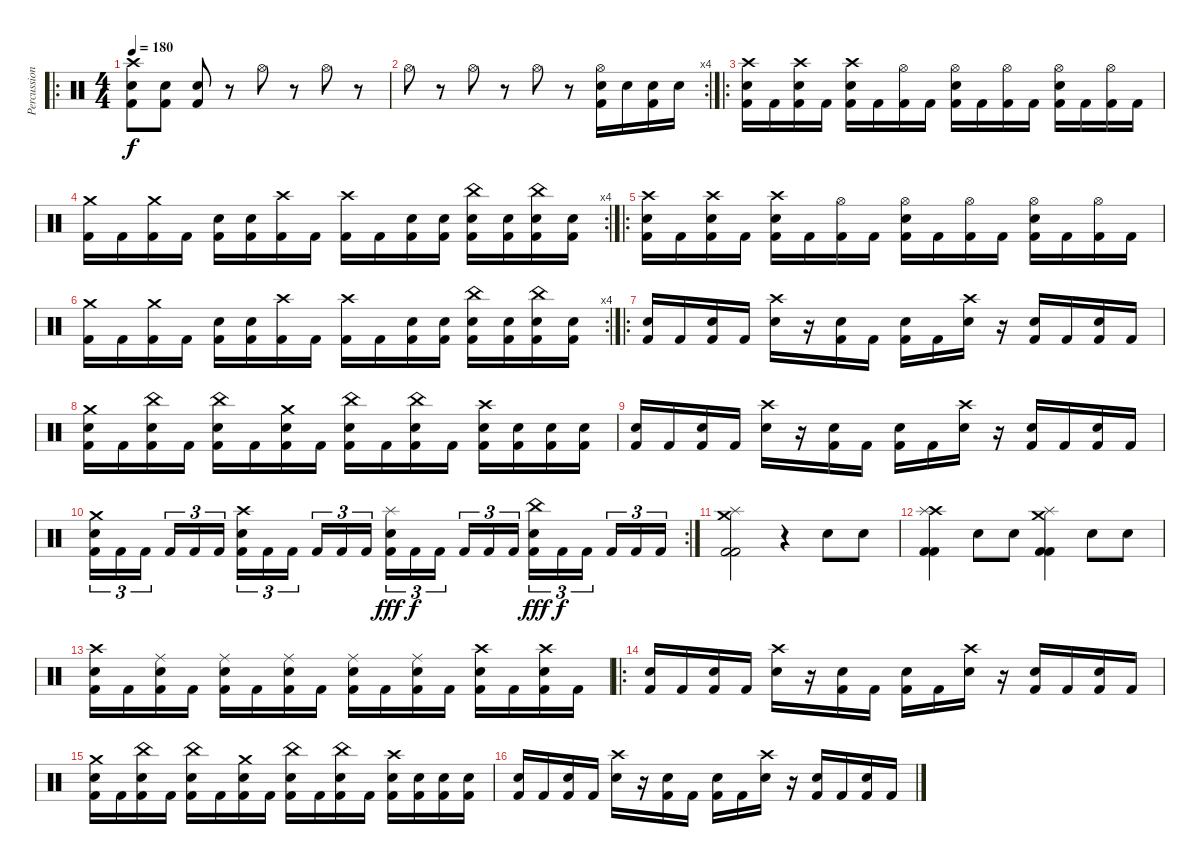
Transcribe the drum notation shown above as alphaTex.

\track ("Percussion" "Percussion") {instrument percussion}
\staff {score}
\articulation defaults
\ro
\ts (4 4)
\tempo 180
\clef neutral
\ks c
("Crash high (hit)" "Electric Snare (hit)" "Kick (hit) 2").8{dy f} ("Electric Snare (hit)" "Kick (hit) 2").8 ("Electric Snare (hit)" "Kick (hit) 2").8 r.8 "Hi-Hat (open)".8 r.8 "Hi-Hat (open)".8 r.8 |
\rc 4 "Hi-Hat (open)".8
r.8 "Hi-Hat (open)".8 r.8 "Hi-Hat (open)".8 r.8 ("Hi-Hat (open)" "Electric Snare (hit)" "Kick (hit) 2").16 "Electric Snare (hit)".16 ("Electric Snare (hit)" "Kick (hit) 2").16 "Electric Snare (hit)".16 |
\ro
("Crash high (hit)" "Electric Snare (hit)" "Kick (hit) 2").16 "Kick (hit) 2".16 ("Crash high (hit)" "Electric Snare (hit)" "Kick (hit) 2").16 "Kick (hit) 2".16 ("Crash high (hit)" "Electric Snare (hit)" "Kick (hit) 2").16 "Kick (hit) 2".16 ("Hi-Hat (open)" "Kick (hit) 2").16 "Kick (hit) 2".16 ("Hi-Hat (open)" "Electric Snare (hit)" "Kick (hit) 2").16 "Kick (hit) 2".16 ("Hi-Hat (open)" "Kick (hit) 2").16 "Kick (hit) 2".16 ("Hi-Hat (open)" "Electric Snare (hit)" "Kick (hit) 2").16 "Kick (hit) 2".16 ("Hi-Hat (open)" "Kick (hit) 2").16 "Kick (hit) 2".16 |
\rc 4
("Crash medium (hit)" "Kick (hit) 2").16 "Kick (hit) 2".16 ("Crash medium (hit)" "Kick (hit) 2").16 "Kick (hit) 2".16 ("Electric Snare (hit)" "Kick (hit) 2").16 ("Electric Snare (hit)" "Kick (hit) 2").16 ("Crash high (hit)" "Kick (hit) 2").16 "Kick (hit) 2".16 ("Crash high (hit)" "Kick (hit) 2").16 "Kick (hit) 2".16 ("Electric Snare (hit)" "Kick (hit) 2").16 ("Electric Snare (hit)" "Kick (hit) 2").16 ("China (hit)" "Electric Snare (hit)" "Kick (hit) 2").16 ("Electric Snare (hit)" "Kick (hit) 2").16 ("China (hit)" "Electric Snare (hit)" "Kick (hit) 2").16 ("Electric Snare (hit)" "Kick (hit) 2").16 |
\ro
("Crash high (hit)" "Electric Snare (hit)" "Kick (hit) 2").16 "Kick (hit) 2".16 ("Crash high (hit)" "Electric Snare (hit)" "Kick (hit) 2").16 "Kick (hit) 2".16 ("Crash high (hit)" "Electric Snare (hit)" "Kick (hit) 2").16 "Kick (hit) 2".16 ("Hi-Hat (open)" "Kick (hit) 2").16 "Kick (hit) 2".16 ("Hi-Hat (open)" "Electric Snare (hit)" "Kick (hit) 2").16 "Kick (hit) 2".16 ("Hi-Hat (open)" "Kick (hit) 2").16 "Kick (hit) 2".16 ("Hi-Hat (open)" "Electric Snare (hit)" "Kick (hit) 2").16 "Kick (hit) 2".16 ("Hi-Hat (open)" "Kick (hit) 2").16 "Kick (hit) 2".16 |
\rc 4
("Crash medium (hit)" "Kick (hit) 2").16 "Kick (hit) 2".16 ("Crash medium (hit)" "Kick (hit) 2").16 "Kick (hit) 2".16 ("Electric Snare (hit)" "Kick (hit) 2").16 ("Electric Snare (hit)" "Kick (hit) 2").16 ("Crash high (hit)" "Kick (hit) 2").16 "Kick (hit) 2".16 ("Crash high (hit)" "Kick (hit) 2").16 "Kick (hit) 2".16 ("Electric Snare (hit)" "Kick (hit) 2").16 ("Electric Snare (hit)" "Kick (hit) 2").16 ("China (hit)" "Electric Snare (hit)" "Kick (hit) 2").16 ("Electric Snare (hit)" "Kick (hit) 2").16 ("China (hit)" "Electric Snare (hit)" "Kick (hit) 2").16 ("Electric Snare (hit)" "Kick (hit) 2").16 |
\ro
("Electric Snare (hit)" "Kick (hit) 2").16 "Kick (hit) 2".16 ("Electric Snare (hit)" "Kick (hit) 2").16 "Kick (hit) 2".16 ("Crash high (hit)" "Electric Snare (hit)").16 r.16 ("Electric Snare (hit)" "Kick (hit) 2").16 "Kick (hit) 2".16 ("Electric Snare (hit)" "Kick (hit) 2").16 "Kick (hit) 2".16 ("Crash high (hit)" "Electric Snare (hit)").16 r.16 ("Electric Snare (hit)" "Kick (hit) 2").16 "Kick (hit) 2".16 ("Electric Snare (hit)" "Kick (hit) 2").16 "Kick (hit) 2".16 |
("Crash medium (hit)" "Electric Snare (hit)" "Kick (hit) 2").16 "Kick (hit) 2".16 ("China (hit)" "Electric Snare (hit)" "Kick (hit) 2").16 "Kick (hit) 2".16 ("China (hit)" "Electric Snare (hit)" "Kick (hit) 2").16 "Kick (hit) 2".16 ("Crash medium (hit)" "Electric Snare (hit)" "Kick (hit) 2").16 "Kick (hit) 2".16 ("China (hit)" "Electric Snare (hit)" "Kick (hit) 2").16 "Kick (hit) 2".16 ("China (hit)" "Electric Snare (hit)" "Kick (hit) 2").16 "Kick (hit) 2".16 ("Crash high (hit)" "Electric Snare (hit)" "Kick (hit) 2").16 ("Electric Snare (hit)" "Kick (hit) 2").16 ("Electric Snare (hit)" "Kick (hit) 2").16 ("Electric Snare (hit)" "Kick (hit) 2").16 |
("Electric Snare (hit)" "Kick (hit) 2").16 "Kick (hit) 2".16 ("Electric Snare (hit)" "Kick (hit) 2").16 "Kick (hit) 2".16 ("Crash high (hit)" "Electric Snare (hit)").16 r.16 ("Electric Snare (hit)" "Kick (hit) 2").16 "Kick (hit) 2".16 ("Electric Snare (hit)" "Kick (hit) 2").16 "Kick (hit) 2".16 ("Crash high (hit)" "Electric Snare (hit)").16 r.16 ("Electric Snare (hit)" "Kick (hit) 2").16 "Kick (hit) 2".16 ("Electric Snare (hit)" "Kick (hit) 2").16 "Kick (hit) 2".16 |
\rc 2
("Crash medium (hit)" "Electric Snare (hit)" "Kick (hit) 2").16{tu (3 2)} "Kick (hit) 2".16{tu (3 2)} "Kick (hit) 2".16{tu (3 2)} "Kick (hit) 2".16{tu (3 2)} "Kick (hit) 2".16{tu (3 2)} "Kick (hit) 2".16{tu (3 2)} ("Crash high (hit)" "Electric Snare (hit)" "Kick (hit) 2").16{tu (3 2)} "Kick (hit) 2".16{tu (3 2)} "Kick (hit) 2".16{tu (3 2)} "Kick (hit) 2".16{tu (3 2)} "Kick (hit) 2".16{tu (3 2)} "Kick (hit) 2".16{tu (3 2)} ("Splash (hit)" "Electric Snare (hit)" "Kick (hit) 2").16{tu (3 2) dy fff} "Kick (hit) 2".16{tu (3 2) dy f} "Kick (hit) 2".16{tu (3 2)} "Kick (hit) 2".16{tu (3 2)} "Kick (hit) 2".16{tu (3 2)} "Kick (hit) 2".16{tu (3 2)} ("China (hit)" "Electric Snare (hit)" "Kick (hit) 2").16{tu (3 2) dy fff} "Kick (hit) 2".16{tu (3 2) dy f} "Kick (hit) 2".16{tu (3 2)} "Kick (hit) 2".16{tu (3 2)} "Kick (hit) 2".16{tu (3 2)} "Kick (hit) 2".16{tu (3 2)} |
("Crash medium (hit)" "Splash (hit)" "Kick (hit) 2" "Kick (hit) 2").2 r.4 "Electric Snare (hit)".8 "Electric Snare (hit)".8 |
("Crash high (hit)" "Splash (hit)" "Kick (hit) 2" "Kick (hit) 2").4 "Electric Snare (hit)".8 "Electric Snare (hit)".8 ("Crash medium (hit)" "Splash (hit)" "Kick (hit) 2" "Kick (hit) 2").4 "Electric Snare (hit)".8 "Electric Snare (hit)".8 |
("Crash high (hit)" "Electric Snare (hit)" "Kick (hit) 2").16 "Kick (hit) 2".16 ("Ride (middle)" "Electric Snare (hit)" "Kick (hit) 2").16 "Kick (hit) 2".16 ("Ride (middle)" "Electric Snare (hit)" "Kick (hit) 2").16 "Kick (hit) 2".16 ("Ride (middle)" "Electric Snare (hit)" "Kick (hit) 2").16 "Kick (hit) 2".16 ("Ride (middle)" "Electric Snare (hit)" "Kick (hit) 2").16 "Kick (hit) 2".16 ("Ride (middle)" "Electric Snare (hit)" "Kick (hit) 2").16 "Kick (hit) 2".16 ("Crash high (hit)" "Electric Snare (hit)" "Kick (hit) 2").16 "Kick (hit) 2".16 ("Crash high (hit)" "Electric Snare (hit)" "Kick (hit) 2").16 "Kick (hit) 2".16 |
\ro
("Electric Snare (hit)" "Kick (hit) 2").16 "Kick (hit) 2".16 ("Electric Snare (hit)" "Kick (hit) 2").16 "Kick (hit) 2".16 ("Crash high (hit)" "Electric Snare (hit)").16 r.16 ("Electric Snare (hit)" "Kick (hit) 2").16 "Kick (hit) 2".16 ("Electric Snare (hit)" "Kick (hit) 2").16 "Kick (hit) 2".16 ("Crash high (hit)" "Electric Snare (hit)").16 r.16 ("Electric Snare (hit)" "Kick (hit) 2").16 "Kick (hit) 2".16 ("Electric Snare (hit)" "Kick (hit) 2").16 "Kick (hit) 2".16 |
("Crash medium (hit)" "Electric Snare (hit)" "Kick (hit) 2").16 "Kick (hit) 2".16 ("China (hit)" "Electric Snare (hit)" "Kick (hit) 2").16 "Kick (hit) 2".16 ("China (hit)" "Electric Snare (hit)" "Kick (hit) 2").16 "Kick (hit) 2".16 ("Crash medium (hit)" "Electric Snare (hit)" "Kick (hit) 2").16 "Kick (hit) 2".16 ("China (hit)" "Electric Snare (hit)" "Kick (hit) 2").16 "Kick (hit) 2".16 ("China (hit)" "Electric Snare (hit)" "Kick (hit) 2").16 "Kick (hit) 2".16 ("Crash high (hit)" "Electric Snare (hit)" "Kick (hit) 2").16 ("Electric Snare (hit)" "Kick (hit) 2").16 ("Electric Snare (hit)" "Kick (hit) 2").16 ("Electric Snare (hit)" "Kick (hit) 2").16 |
("Electric Snare (hit)" "Kick (hit) 2").16 "Kick (hit) 2".16 ("Electric Snare (hit)" "Kick (hit) 2").16 "Kick (hit) 2".16 ("Crash high (hit)" "Electric Snare (hit)").16 r.16 ("Electric Snare (hit)" "Kick (hit) 2").16 "Kick (hit) 2".16 ("Electric Snare (hit)" "Kick (hit) 2").16 "Kick (hit) 2".16 ("Crash high (hit)" "Electric Snare (hit)").16 r.16 ("Electric Snare (hit)" "Kick (hit) 2").16 "Kick (hit) 2".16 ("Electric Snare (hit)" "Kick (hit) 2").16 "Kick (hit) 2".16
